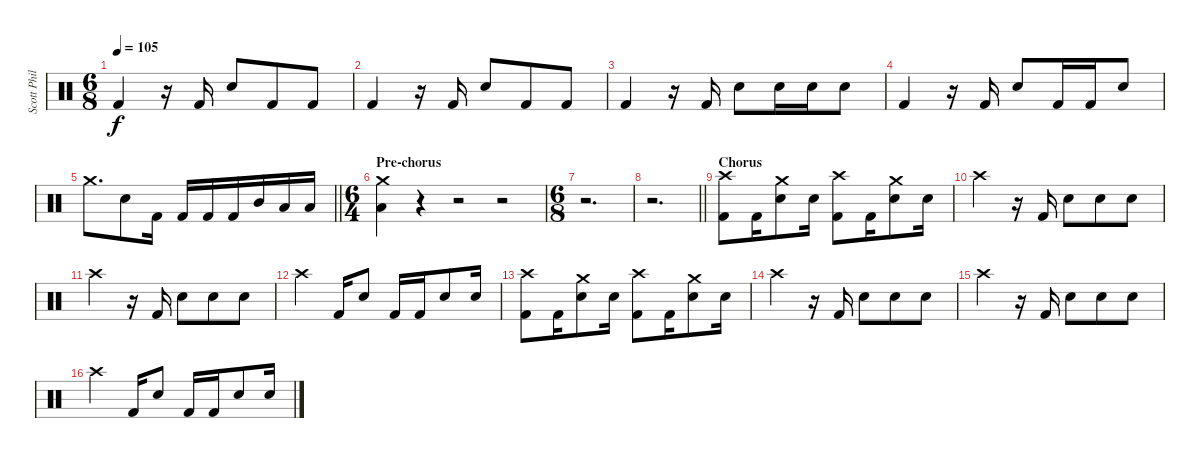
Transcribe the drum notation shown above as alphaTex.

\track ("Scott Phillips (Drums)" "Scott Phil") {instrument percussion}
\staff {score}
\articulation defaults
\ts (6 8)
\tempo 105
\clef neutral
\ks c "Kick (hit) 2".4{dy f}
r.16 "Kick (hit) 2".16 "Electric Snare (hit)".8 "Kick (hit) 2".8 "Kick (hit) 2".8 |
"Kick (hit) 2".4 r.16 "Kick (hit) 2".16 "Electric Snare (hit)".8 "Kick (hit) 2".8 "Kick (hit) 2".8 |
"Kick (hit) 2".4 r.16 "Kick (hit) 2".16 "Electric Snare (hit)".8 "Electric Snare (hit)".16 "Electric Snare (hit)".16 "Electric Snare (hit)".8 |
"Kick (hit) 2".4 r.16 "Kick (hit) 2".16 "Electric Snare (hit)".8 "Kick (hit) 2".16 "Kick (hit) 2".16 "Electric Snare (hit)".8 |
\barLineRight lightlight "Crash medium (hit)".8{d} "Electric Snare (hit)".8 "Kick (hit) 2".16 "Kick (hit) 2".16 "Kick (hit) 2".16 "Kick (hit) 2".16 "Mid Tom (hit)".16 "Low Tom (hit)".16 "Low Tom (hit)".16
|
\ts (6 4)
\section ("" "Pre-chorus")
("Crash medium (hit)" "Low Floor Tom (hit)").4 r.4 r.2 r.2 |
\ts (6 8)
r.2{d} |
\barLineRight lightlight
r.2{d} |
\section ("" "Chorus")
("Crash high (hit)" "Kick (hit) 2").8 "Kick (hit) 2".16 ("Crash medium (hit)" "Electric Snare (hit)").8 "Electric Snare (hit)".16 ("Crash high (hit)" "Kick (hit) 2").8 "Kick (hit) 2".16 ("Crash medium (hit)" "Electric Snare (hit)").8 "Electric Snare (hit)".16 |
"Crash high (hit)".4 r.16 "Kick (hit) 2".16 "Electric Snare (hit)".8 "Electric Snare (hit)".8 "Electric Snare (hit)".8 |
"Crash high (hit)".4 r.16 "Kick (hit) 2".16 "Electric Snare (hit)".8 "Electric Snare (hit)".8 "Electric Snare (hit)".8 |
"Crash high (hit)".4 "Kick (hit) 2".16 "Electric Snare (hit)".8 "Kick (hit) 2".16 "Kick (hit) 2".16 "Electric Snare (hit)".8 "Electric Snare (hit)".16 |
("Crash high (hit)" "Kick (hit) 2").8 "Kick (hit) 2".16 ("Crash medium (hit)" "Electric Snare (hit)").8 "Electric Snare (hit)".16 ("Crash high (hit)" "Kick (hit) 2").8 "Kick (hit) 2".16 ("Crash medium (hit)" "Electric Snare (hit)").8 "Electric Snare (hit)".16 |
"Crash high (hit)".4 r.16 "Kick (hit) 2".16 "Electric Snare (hit)".8 "Electric Snare (hit)".8 "Electric Snare (hit)".8 |
"Crash high (hit)".4 r.16 "Kick (hit) 2".16 "Electric Snare (hit)".8 "Electric Snare (hit)".8 "Electric Snare (hit)".8 |
"Crash high (hit)".4 "Kick (hit) 2".16 "Electric Snare (hit)".8 "Kick (hit) 2".16 "Kick (hit) 2".16 "Electric Snare (hit)".8 "Electric Snare (hit)".16
